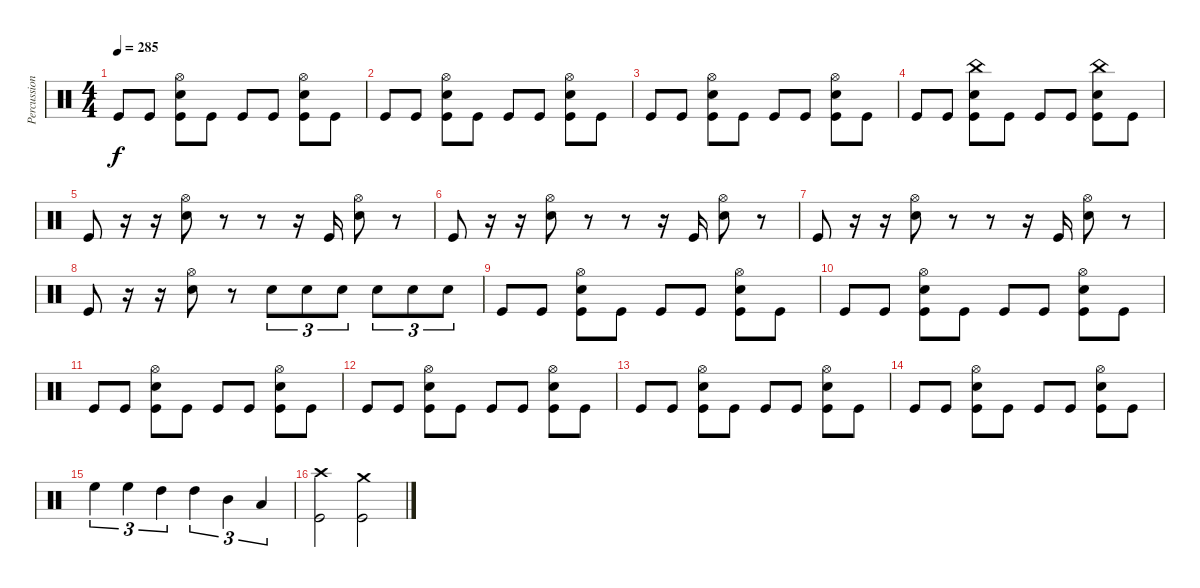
\track ("Percussion" "Percussion") {instrument percussion}
\staff {score}
\articulation defaults
\ts (4 4)
\tempo 285
\clef neutral
\ks c "Kick (hit)".8{dy f} "Kick (hit)".8
("Snare (hit) 2" "Hi-Hat (open)" "Kick (hit)").8 "Kick (hit)".8 "Kick (hit)".8 "Kick (hit)".8 ("Snare (hit) 2" "Hi-Hat (open)" "Kick (hit)").8 "Kick (hit)".8 |
"Kick (hit)".8 "Kick (hit)".8 ("Snare (hit) 2" "Hi-Hat (open)" "Kick (hit)").8 "Kick (hit)".8 "Kick (hit)".8 "Kick (hit)".8 ("Snare (hit) 2" "Hi-Hat (open)" "Kick (hit)").8 "Kick (hit)".8 |
"Kick (hit)".8 "Kick (hit)".8 ("Snare (hit) 2" "Hi-Hat (open)" "Kick (hit)").8 "Kick (hit)".8 "Kick (hit)".8 "Kick (hit)".8 ("Snare (hit) 2" "Hi-Hat (open)" "Kick (hit)").8 "Kick (hit)".8 |
"Kick (hit)".8 "Kick (hit)".8 ("Snare (hit) 2" "China (hit)" "Kick (hit)").8 "Kick (hit)".8 "Kick (hit)".8 "Kick (hit)".8 ("Snare (hit) 2" "China (hit)" "Kick (hit)").8 "Kick (hit)".8 |
"Kick (hit)".8 r.16 r.16 ("Snare (hit) 2" "Hi-Hat (open)").8 r.8 r.8 r.16 "Kick (hit)".16 ("Snare (hit) 2" "Hi-Hat (open)").8 r.8 |
"Kick (hit)".8 r.16 r.16 ("Snare (hit) 2" "Hi-Hat (open)").8 r.8 r.8 r.16 "Kick (hit)".16 ("Snare (hit) 2" "Hi-Hat (open)").8 r.8 |
"Kick (hit)".8 r.16 r.16 ("Snare (hit) 2" "Hi-Hat (open)").8 r.8 r.8 r.16 "Kick (hit)".16 ("Snare (hit) 2" "Hi-Hat (open)").8 r.8 |
"Kick (hit)".8 r.16 r.16 ("Snare (hit) 2" "Hi-Hat (open)").8 r.8 "Snare (hit) 2".8{tu (3 2)} "Snare (hit) 2".8{tu (3 2)} "Snare (hit) 2".8{tu (3 2)} "Snare (hit) 2".8{tu (3 2)} "Snare (hit) 2".8{tu (3 2)} "Snare (hit) 2".8{tu (3 2)} |
"Kick (hit)".8 "Kick (hit)".8 ("Snare (hit) 2" "Hi-Hat (open)" "Kick (hit)").8 "Kick (hit)".8 "Kick (hit)".8 "Kick (hit)".8 ("Snare (hit) 2" "Hi-Hat (open)" "Kick (hit)").8 "Kick (hit)".8 |
"Kick (hit)".8 "Kick (hit)".8 ("Snare (hit) 2" "Hi-Hat (open)" "Kick (hit)").8 "Kick (hit)".8 "Kick (hit)".8 "Kick (hit)".8 ("Snare (hit) 2" "Hi-Hat (open)" "Kick (hit)").8 "Kick (hit)".8 |
"Kick (hit)".8 "Kick (hit)".8 ("Snare (hit) 2" "Hi-Hat (open)" "Kick (hit)").8 "Kick (hit)".8 "Kick (hit)".8 "Kick (hit)".8 ("Snare (hit) 2" "Hi-Hat (open)" "Kick (hit)").8 "Kick (hit)".8 |
"Kick (hit)".8 "Kick (hit)".8 ("Snare (hit) 2" "Hi-Hat (open)" "Kick (hit)").8 "Kick (hit)".8 "Kick (hit)".8 "Kick (hit)".8 ("Snare (hit) 2" "Hi-Hat (open)" "Kick (hit)").8 "Kick (hit)".8 |
"Kick (hit)".8 "Kick (hit)".8 ("Snare (hit) 2" "Hi-Hat (open)" "Kick (hit)").8 "Kick (hit)".8 "Kick (hit)".8 "Kick (hit)".8 ("Snare (hit) 2" "Hi-Hat (open)" "Kick (hit)").8 "Kick (hit)".8 |
"Kick (hit)".8 "Kick (hit)".8 ("Snare (hit) 2" "Hi-Hat (open)" "Kick (hit)").8 "Kick (hit)".8 "Kick (hit)".8 "Kick (hit)".8 ("Snare (hit) 2" "Hi-Hat (open)" "Kick (hit)").8 "Kick (hit)".8 |
"High Floor Tom (hit)".4{tu (3 2)} "High Floor Tom (hit)".4{tu (3 2)} "High Tom (hit)".4{tu (3 2)} "High Tom (hit)".4{tu (3 2)} "Mid Tom (hit)".4{tu (3 2)} "Low Tom (hit)".4{tu (3 2)} |
("Crash high (hit)" "Kick (hit)").2 ("Crash medium (hit)" "Kick (hit)").2
